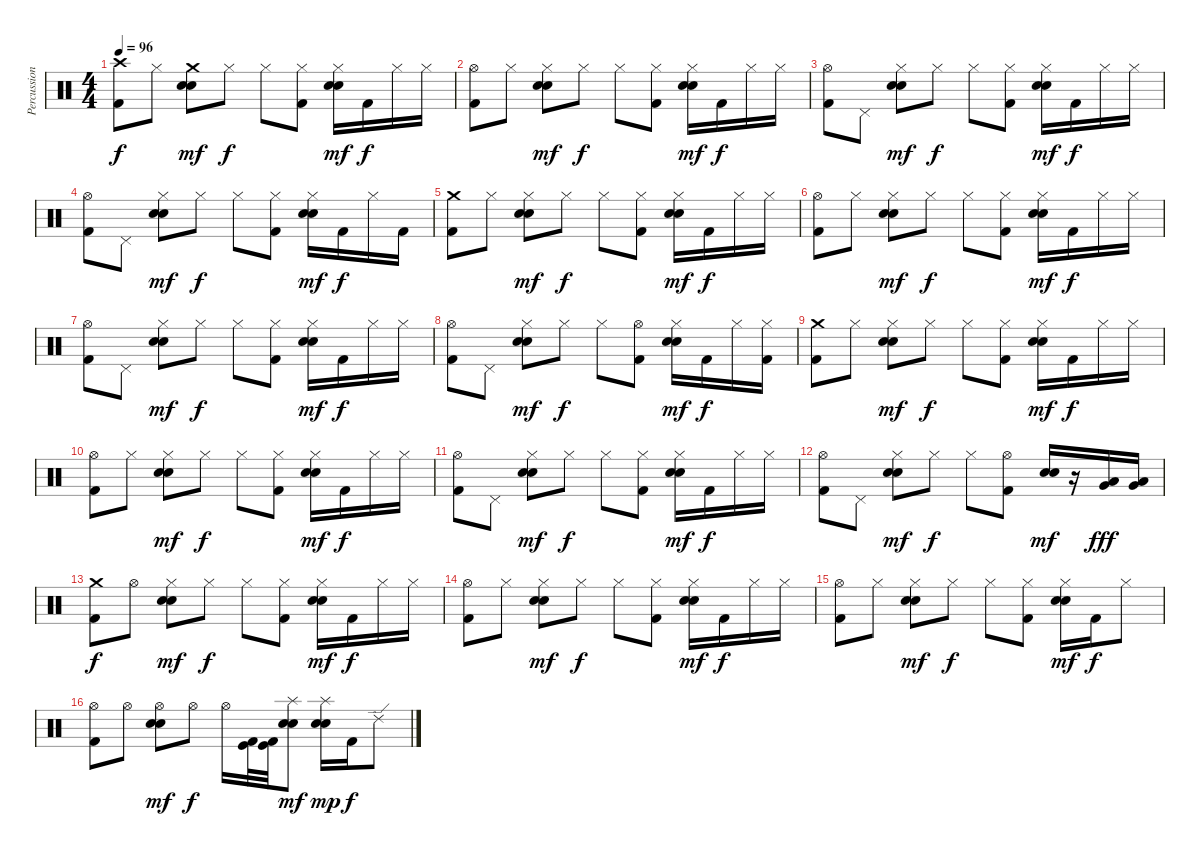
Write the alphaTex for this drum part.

\track ("Percussions" "Percussion") {instrument percussion}
\staff {score}
\articulation defaults
\ts (4 4)
\tempo 96
\clef neutral
\ks c
("Crash high (hit)" "Kick (hit) 2").8{dy f} "Hi-Hat (closed)".8 ("Crash medium (hit)" "Snare (hit) 2" "Electric Snare (hit)").8{dy mf} "Hi-Hat (closed)".8{dy f} "Hi-Hat (closed)".8 ("Hi-Hat (closed)" "Kick (hit) 2").8 ("Hi-Hat (closed)" "Snare (hit) 2" "Electric Snare (hit)").16{dy mf} "Kick (hit) 2".16{dy f} "Hi-Hat (closed)".16 "Hi-Hat (closed)".16 |
("Hi-Hat (open)" "Kick (hit) 2").8 "Hi-Hat (closed)".8 ("Hi-Hat (closed)" "Snare (hit) 2" "Electric Snare (hit)").8{dy mf} "Hi-Hat (closed)".8{dy f} "Hi-Hat (closed)".8 ("Hi-Hat (closed)" "Kick (hit) 2").8 ("Hi-Hat (closed)" "Snare (hit) 2" "Electric Snare (hit)").16{dy mf} "Kick (hit) 2".16{dy f} "Hi-Hat (closed)".16 "Hi-Hat (closed)".16 |
("Hi-Hat (open)" "Kick (hit) 2").8 "Pedal Hi-Hat (hit)".8 ("Hi-Hat (closed)" "Snare (hit) 2" "Electric Snare (hit)").8{dy mf} "Hi-Hat (closed)".8{dy f} "Hi-Hat (closed)".8 ("Hi-Hat (closed)" "Kick (hit) 2").8 ("Hi-Hat (closed)" "Snare (hit) 2" "Electric Snare (hit)").16{dy mf} "Kick (hit) 2".16{dy f} "Hi-Hat (closed)".16 "Hi-Hat (closed)".16 |
("Hi-Hat (open)" "Kick (hit) 2").8 "Pedal Hi-Hat (hit)".8 ("Hi-Hat (closed)" "Snare (hit) 2" "Electric Snare (hit)").8{dy mf} "Hi-Hat (closed)".8{dy f} "Hi-Hat (closed)".8 ("Hi-Hat (closed)" "Kick (hit) 2").8 ("Hi-Hat (closed)" "Snare (hit) 2" "Electric Snare (hit)").16{dy mf} "Kick (hit) 2".16{dy f} "Hi-Hat (closed)".16 "Kick (hit) 2".16 |
("Crash medium (hit)" "Kick (hit) 2").8 "Hi-Hat (closed)".8 ("Hi-Hat (closed)" "Snare (hit) 2" "Electric Snare (hit)").8{dy mf} "Hi-Hat (closed)".8{dy f} "Hi-Hat (closed)".8 ("Hi-Hat (closed)" "Kick (hit) 2").8 ("Hi-Hat (closed)" "Snare (hit) 2" "Electric Snare (hit)").16{dy mf} "Kick (hit) 2".16{dy f} "Hi-Hat (closed)".16 "Hi-Hat (closed)".16 |
("Hi-Hat (open)" "Kick (hit) 2").8 "Hi-Hat (closed)".8 ("Hi-Hat (closed)" "Snare (hit) 2" "Electric Snare (hit)").8{dy mf} "Hi-Hat (closed)".8{dy f} "Hi-Hat (closed)".8 ("Hi-Hat (closed)" "Kick (hit) 2").8 ("Hi-Hat (closed)" "Snare (hit) 2" "Electric Snare (hit)").16{dy mf} "Kick (hit) 2".16{dy f} "Hi-Hat (closed)".16 "Hi-Hat (closed)".16 |
("Hi-Hat (open)" "Kick (hit) 2").8 "Pedal Hi-Hat (hit)".8 ("Hi-Hat (closed)" "Snare (hit) 2" "Electric Snare (hit)").8{dy mf} "Hi-Hat (closed)".8{dy f} "Hi-Hat (closed)".8 ("Hi-Hat (closed)" "Kick (hit) 2").8 ("Hi-Hat (closed)" "Snare (hit) 2" "Electric Snare (hit)").16{dy mf} "Kick (hit) 2".16{dy f} "Hi-Hat (closed)".16 "Hi-Hat (closed)".16 |
("Hi-Hat (open)" "Kick (hit) 2").8 "Pedal Hi-Hat (hit)".8 ("Hi-Hat (closed)" "Snare (hit) 2" "Electric Snare (hit)").8{dy mf} "Hi-Hat (closed)".8{dy f} "Hi-Hat (closed)".8 ("Hi-Hat (open)" "Kick (hit) 2").8 ("Hi-Hat (closed)" "Snare (hit) 2" "Electric Snare (hit)").16{dy mf} "Kick (hit) 2".16{dy f} "Hi-Hat (closed)".16 ("Hi-Hat (closed)" "Kick (hit) 2").16 |
("Crash medium (hit)" "Kick (hit) 2").8 "Hi-Hat (closed)".8 ("Hi-Hat (closed)" "Snare (hit) 2" "Electric Snare (hit)").8{dy mf} "Hi-Hat (closed)".8{dy f} "Hi-Hat (closed)".8 ("Hi-Hat (closed)" "Kick (hit) 2").8 ("Hi-Hat (closed)" "Snare (hit) 2" "Electric Snare (hit)").16{dy mf} "Kick (hit) 2".16{dy f} "Hi-Hat (closed)".16 "Hi-Hat (closed)".16 |
("Hi-Hat (open)" "Kick (hit) 2").8 "Hi-Hat (closed)".8 ("Hi-Hat (closed)" "Snare (hit) 2" "Electric Snare (hit)").8{dy mf} "Hi-Hat (closed)".8{dy f} "Hi-Hat (closed)".8 ("Hi-Hat (closed)" "Kick (hit) 2").8 ("Hi-Hat (closed)" "Snare (hit) 2" "Electric Snare (hit)").16{dy mf} "Kick (hit) 2".16{dy f} "Hi-Hat (closed)".16 "Hi-Hat (closed)".16 |
("Hi-Hat (open)" "Kick (hit) 2").8 "Pedal Hi-Hat (hit)".8 ("Hi-Hat (closed)" "Snare (hit) 2" "Electric Snare (hit)").8{dy mf} "Hi-Hat (closed)".8{dy f} "Hi-Hat (closed)".8 ("Hi-Hat (closed)" "Kick (hit) 2").8 ("Hi-Hat (closed)" "Snare (hit) 2" "Electric Snare (hit)").16{dy mf} "Kick (hit) 2".16{dy f} "Hi-Hat (closed)".16 "Hi-Hat (closed)".16 |
("Hi-Hat (open)" "Kick (hit) 2").8 "Pedal Hi-Hat (hit)".8 ("Hi-Hat (closed)" "Snare (hit) 2" "Electric Snare (hit)").8{dy mf} "Hi-Hat (closed)".8{dy f} "Hi-Hat (closed)".8 ("Hi-Hat (open)" "Kick (hit) 2").8 ("Snare (hit) 2" "Electric Snare (hit)").16{dy mf} r.16 ("Low Tom (hit)" "Very Low Tom (hit)").16{dy fff} ("Low Tom (hit)" "Very Low Tom (hit)").16 |
("Crash medium (hit)" "Kick (hit) 2").8{dy f} "Hi-Hat (open)".8 ("Hi-Hat (closed)" "Snare (hit) 2" "Electric Snare (hit)").8{dy mf} "Hi-Hat (closed)".8{dy f} "Hi-Hat (closed)".8 ("Hi-Hat (closed)" "Kick (hit) 2").8 ("Hi-Hat (closed)" "Snare (hit) 2" "Electric Snare (hit)").16{dy mf} "Kick (hit) 2".16{dy f} "Hi-Hat (closed)".16 "Hi-Hat (closed)".16 |
("Hi-Hat (open)" "Kick (hit) 2").8 "Hi-Hat (closed)".8 ("Hi-Hat (closed)" "Snare (hit) 2" "Electric Snare (hit)").8{dy mf} "Hi-Hat (closed)".8{dy f} "Hi-Hat (closed)".8 ("Hi-Hat (closed)" "Kick (hit) 2").8 ("Hi-Hat (closed)" "Snare (hit) 2" "Electric Snare (hit)").16{dy mf} "Kick (hit) 2".16{dy f} "Hi-Hat (closed)".16 "Hi-Hat (closed)".16 |
("Hi-Hat (open)" "Kick (hit) 2").8 "Hi-Hat (closed)".8 ("Hi-Hat (closed)" "Snare (hit) 2" "Electric Snare (hit)").8{dy mf} "Hi-Hat (closed)".8{dy f} "Hi-Hat (closed)".8 ("Hi-Hat (closed)" "Kick (hit) 2").8 ("Hi-Hat (closed)" "Snare (hit) 2" "Electric Snare (hit)").16{dy mf} "Kick (hit) 2".16{dy f} "Hi-Hat (closed)".8 |
("Hi-Hat (open)" "Kick (hit) 2").8 "Hi-Hat (open)".8 ("Hi-Hat (open)" "Snare (hit) 2" "Electric Snare (hit)").8{dy mf} "Hi-Hat (open)".8{dy f} "Hi-Hat (open)".16 ("Kick (hit)" "Kick (hit) 2").32 ("Kick (hit)" "Kick (hit) 2").32 ("Splash (hit)" "Snare (hit) 2" "Electric Snare (hit)").8{dy mf} ("Splash (hit)" "Snare (hit) 2" "Electric Snare (hit)").16{dy mp} "Kick (hit) 2".16{dy f} "Ride (edge) 2".8
